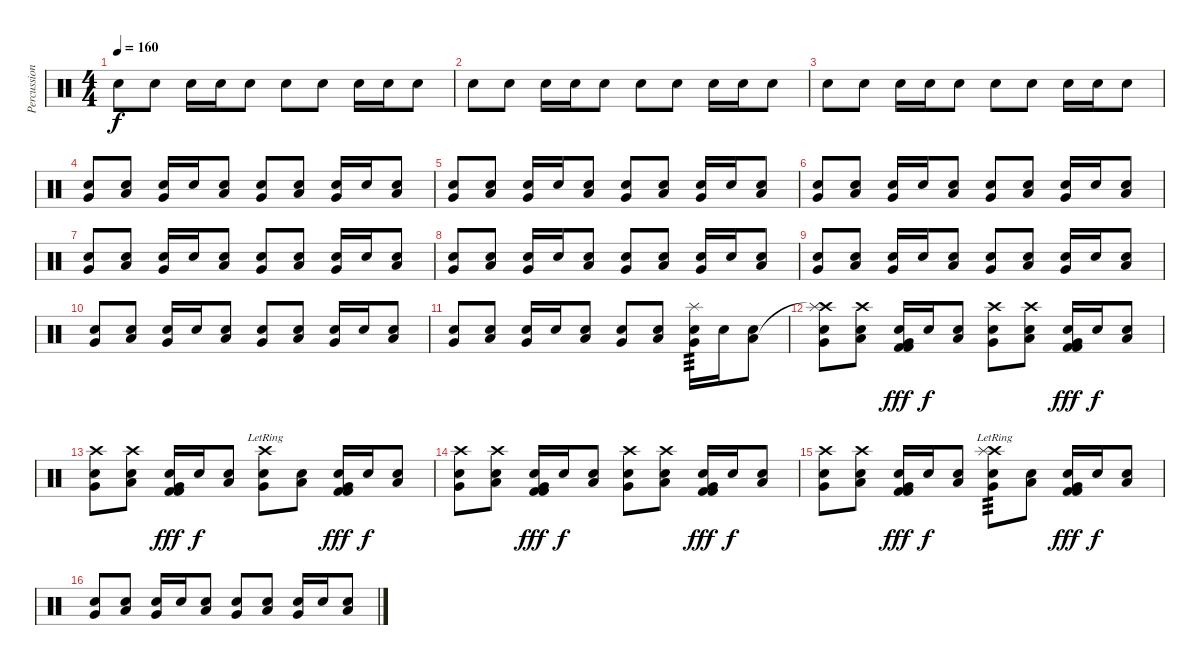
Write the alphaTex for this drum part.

\track ("Percussions" "Percussion") {instrument percussion}
\staff {score}
\articulation defaults
\ts (4 4)
\tempo 160
\clef neutral
\ks c "Snare (hit) 2".8{dy f} "Snare (hit) 2".8 "Snare (hit) 2".16 "Snare (hit) 2".16 "Snare (hit) 2".8 "Snare (hit) 2".8 "Snare (hit) 2".8 "Snare (hit) 2".16 "Snare (hit) 2".16 "Snare (hit) 2".8
|
"Snare (hit) 2".8 "Snare (hit) 2".8 "Snare (hit) 2".16 "Snare (hit) 2".16 "Snare (hit) 2".8 "Snare (hit) 2".8 "Snare (hit) 2".8 "Snare (hit) 2".16 "Snare (hit) 2".16 "Snare (hit) 2".8 |
"Snare (hit) 2".8 "Snare (hit) 2".8 "Snare (hit) 2".16 "Snare (hit) 2".16 "Snare (hit) 2".8 "Snare (hit) 2".8 "Snare (hit) 2".8 "Snare (hit) 2".16 "Snare (hit) 2".16 "Snare (hit) 2".8 |
("Snare (hit) 2" "Very Low Tom (hit)").8 ("Snare (hit) 2" "Low Tom (hit)").8 ("Snare (hit) 2" "Very Low Tom (hit)").16 "Snare (hit) 2".16 ("Snare (hit) 2" "Low Tom (hit)").8 ("Snare (hit) 2" "Very Low Tom (hit)").8 ("Snare (hit) 2" "Low Tom (hit)").8 ("Snare (hit) 2" "Very Low Tom (hit)").16 "Snare (hit) 2".16 ("Snare (hit) 2" "Low Tom (hit)").8 |
("Snare (hit) 2" "Very Low Tom (hit)").8 ("Snare (hit) 2" "Low Tom (hit)").8 ("Snare (hit) 2" "Very Low Tom (hit)").16 "Snare (hit) 2".16 ("Snare (hit) 2" "Low Tom (hit)").8 ("Snare (hit) 2" "Very Low Tom (hit)").8 ("Snare (hit) 2" "Low Tom (hit)").8 ("Snare (hit) 2" "Very Low Tom (hit)").16 "Snare (hit) 2".16 ("Snare (hit) 2" "Low Tom (hit)").8 |
("Snare (hit) 2" "Very Low Tom (hit)").8 ("Snare (hit) 2" "Low Tom (hit)").8 ("Snare (hit) 2" "Very Low Tom (hit)").16 "Snare (hit) 2".16 ("Snare (hit) 2" "Low Tom (hit)").8 ("Snare (hit) 2" "Very Low Tom (hit)").8 ("Snare (hit) 2" "Low Tom (hit)").8 ("Snare (hit) 2" "Very Low Tom (hit)").16 "Snare (hit) 2".16 ("Snare (hit) 2" "Low Tom (hit)").8 |
("Snare (hit) 2" "Very Low Tom (hit)").8 ("Snare (hit) 2" "Low Tom (hit)").8 ("Snare (hit) 2" "Very Low Tom (hit)").16 "Snare (hit) 2".16 ("Snare (hit) 2" "Low Tom (hit)").8 ("Snare (hit) 2" "Very Low Tom (hit)").8 ("Snare (hit) 2" "Low Tom (hit)").8 ("Snare (hit) 2" "Very Low Tom (hit)").16 "Snare (hit) 2".16 ("Snare (hit) 2" "Low Tom (hit)").8 |
("Snare (hit) 2" "Very Low Tom (hit)").8 ("Snare (hit) 2" "Low Tom (hit)").8 ("Snare (hit) 2" "Very Low Tom (hit)").16 "Snare (hit) 2".16 ("Snare (hit) 2" "Low Tom (hit)").8 ("Snare (hit) 2" "Very Low Tom (hit)").8 ("Snare (hit) 2" "Low Tom (hit)").8 ("Snare (hit) 2" "Very Low Tom (hit)").16 "Snare (hit) 2".16 ("Snare (hit) 2" "Low Tom (hit)").8 |
("Snare (hit) 2" "Very Low Tom (hit)").8 ("Snare (hit) 2" "Low Tom (hit)").8 ("Snare (hit) 2" "Very Low Tom (hit)").16 "Snare (hit) 2".16 ("Snare (hit) 2" "Low Tom (hit)").8 ("Snare (hit) 2" "Very Low Tom (hit)").8 ("Snare (hit) 2" "Low Tom (hit)").8 ("Snare (hit) 2" "Very Low Tom (hit)").16 "Snare (hit) 2".16 ("Snare (hit) 2" "Low Tom (hit)").8 |
("Snare (hit) 2" "Very Low Tom (hit)").8 ("Snare (hit) 2" "Low Tom (hit)").8 ("Snare (hit) 2" "Very Low Tom (hit)").16 "Snare (hit) 2".16 ("Snare (hit) 2" "Low Tom (hit)").8 ("Snare (hit) 2" "Very Low Tom (hit)").8 ("Snare (hit) 2" "Low Tom (hit)").8 ("Snare (hit) 2" "Very Low Tom (hit)").16 "Snare (hit) 2".16 ("Snare (hit) 2" "Low Tom (hit)").8 |
("Snare (hit) 2" "Very Low Tom (hit)").8 ("Snare (hit) 2" "Low Tom (hit)").8 ("Snare (hit) 2" "Very Low Tom (hit)").16 "Snare (hit) 2".16 ("Snare (hit) 2" "Low Tom (hit)").8 ("Snare (hit) 2" "Very Low Tom (hit)").8 ("Snare (hit) 2" "Low Tom (hit)").8 ("Splash (hit)" "Snare (hit) 2" "Very Low Tom (hit)").16{tp 3} "Snare (hit) 2".16 ("Snare (hit) 2" "Low Tom (hit)").8 |
("Crash high (hit)" "Splash (hit)"{t} "Snare (hit) 2" "Very Low Tom (hit)").8 ("Crash high (hit)" "Snare (hit) 2" "Low Tom (hit)").8 ("Snare (hit) 2" "Very Low Tom (hit)" "Kick (hit) 2" "Kick (hit) 2").16{dy fff} "Snare (hit) 2".16{dy f} ("Snare (hit) 2" "Low Tom (hit)").8 ("Crash high (hit)" "Snare (hit) 2" "Very Low Tom (hit)").8 ("Crash high (hit)" "Snare (hit) 2" "Low Tom (hit)").8 ("Snare (hit) 2" "Very Low Tom (hit)" "Kick (hit) 2" "Kick (hit) 2").16{dy fff} "Snare (hit) 2".16{dy f} ("Snare (hit) 2" "Low Tom (hit)").8 |
("Crash high (hit)" "Snare (hit) 2" "Very Low Tom (hit)").8 ("Crash high (hit)" "Snare (hit) 2" "Low Tom (hit)").8 ("Snare (hit) 2" "Very Low Tom (hit)" "Kick (hit) 2" "Kick (hit) 2").16{dy fff} "Snare (hit) 2".16{dy f} ("Snare (hit) 2" "Low Tom (hit)").8 ("Crash high (hit)"{lr} "Snare (hit) 2" "Very Low Tom (hit)").8 ("Snare (hit) 2" "Low Tom (hit)").8 ("Snare (hit) 2" "Very Low Tom (hit)" "Kick (hit) 2" "Kick (hit) 2").16{dy fff} "Snare (hit) 2".16{dy f} ("Snare (hit) 2" "Low Tom (hit)").8 |
("Crash high (hit)" "Snare (hit) 2" "Very Low Tom (hit)").8 ("Crash high (hit)" "Snare (hit) 2" "Low Tom (hit)").8 ("Snare (hit) 2" "Very Low Tom (hit)" "Kick (hit) 2" "Kick (hit) 2").16{dy fff} "Snare (hit) 2".16{dy f} ("Snare (hit) 2" "Low Tom (hit)").8 ("Crash high (hit)" "Snare (hit) 2" "Very Low Tom (hit)").8 ("Crash high (hit)" "Snare (hit) 2" "Low Tom (hit)").8 ("Snare (hit) 2" "Very Low Tom (hit)" "Kick (hit) 2" "Kick (hit) 2").16{dy fff} "Snare (hit) 2".16{dy f} ("Snare (hit) 2" "Low Tom (hit)").8 |
("Crash high (hit)" "Snare (hit) 2" "Very Low Tom (hit)").8 ("Crash high (hit)" "Snare (hit) 2" "Low Tom (hit)").8 ("Snare (hit) 2" "Very Low Tom (hit)" "Kick (hit) 2" "Kick (hit) 2").16{dy fff} "Snare (hit) 2".16{dy f} ("Snare (hit) 2" "Low Tom (hit)").8 ("Crash high (hit)"{lr} "Splash (hit)" "Snare (hit) 2" "Very Low Tom (hit)").8{tp 3} ("Snare (hit) 2" "Low Tom (hit)").8 ("Snare (hit) 2" "Very Low Tom (hit)" "Kick (hit) 2" "Kick (hit) 2").16{dy fff} "Snare (hit) 2".16{dy f} ("Snare (hit) 2" "Low Tom (hit)").8 |
("Snare (hit) 2" "Very Low Tom (hit)").8 ("Snare (hit) 2" "Low Tom (hit)").8 ("Snare (hit) 2" "Very Low Tom (hit)").16 "Snare (hit) 2".16 ("Snare (hit) 2" "Low Tom (hit)").8 ("Snare (hit) 2" "Very Low Tom (hit)").8 ("Snare (hit) 2" "Low Tom (hit)").8 ("Snare (hit) 2" "Very Low Tom (hit)").16 "Snare (hit) 2".16 ("Snare (hit) 2" "Low Tom (hit)").8
